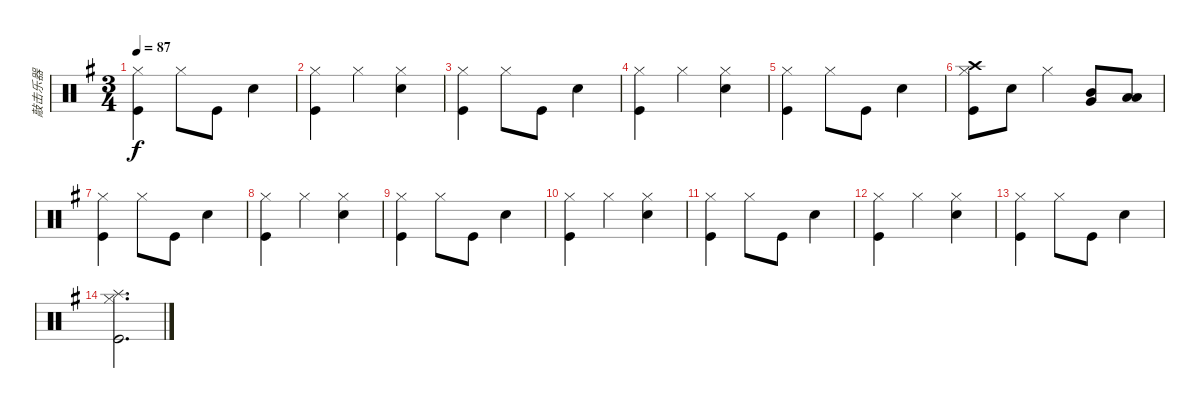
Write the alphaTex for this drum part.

\track ("敲击乐器" "敲击乐器") {instrument percussion}
\staff {score}
\articulation defaults
\ts (3 4)
\tempo 87
\clef neutral
\ks g
("Hi-Hat (closed)" "Kick (hit)").4{dy f} "Hi-Hat (closed)".8 "Kick (hit)".8 "Snare (hit) 2".4 |
("Hi-Hat (closed)" "Kick (hit)").4 "Hi-Hat (closed)".4 ("Hi-Hat (closed)" "Snare (hit) 2").4 |
("Hi-Hat (closed)" "Kick (hit)").4 "Hi-Hat (closed)".8 "Kick (hit)".8 "Snare (hit) 2".4 |
("Hi-Hat (closed)" "Kick (hit)").4 "Hi-Hat (closed)".4 ("Hi-Hat (closed)" "Snare (hit) 2").4 |
("Hi-Hat (closed)" "Kick (hit)").4 "Hi-Hat (closed)".8 "Kick (hit)".8 "Snare (hit) 2".4 |
("Hi-Hat (closed)" "Crash high (hit)" "Kick (hit)").8 "Snare (hit) 2".8 "Hi-Hat (closed)".4 ("Very Low Tom (hit)" "Mid Tom (hit)").8 ("Low Tom (hit)" "Low Floor Tom (hit)").8 |
("Hi-Hat (closed)" "Kick (hit)").4 "Hi-Hat (closed)".8 "Kick (hit)".8 "Snare (hit) 2".4 |
("Hi-Hat (closed)" "Kick (hit)").4 "Hi-Hat (closed)".4 ("Hi-Hat (closed)" "Snare (hit) 2").4 |
("Hi-Hat (closed)" "Kick (hit)").4 "Hi-Hat (closed)".8 "Kick (hit)".8 "Snare (hit) 2".4 |
("Hi-Hat (closed)" "Kick (hit)").4 "Hi-Hat (closed)".4 ("Hi-Hat (closed)" "Snare (hit) 2").4 |
("Hi-Hat (closed)" "Kick (hit)").4 "Hi-Hat (closed)".8 "Kick (hit)".8 "Snare (hit) 2".4 |
("Hi-Hat (closed)" "Kick (hit)").4 "Hi-Hat (closed)".4 ("Hi-Hat (closed)" "Snare (hit) 2").4 |
("Hi-Hat (closed)" "Kick (hit)").4 "Hi-Hat (closed)".8 "Kick (hit)".8 "Snare (hit) 2".4 |
("Splash (hit)" "Hi-Hat (closed)" "Kick (hit)").2{d}
